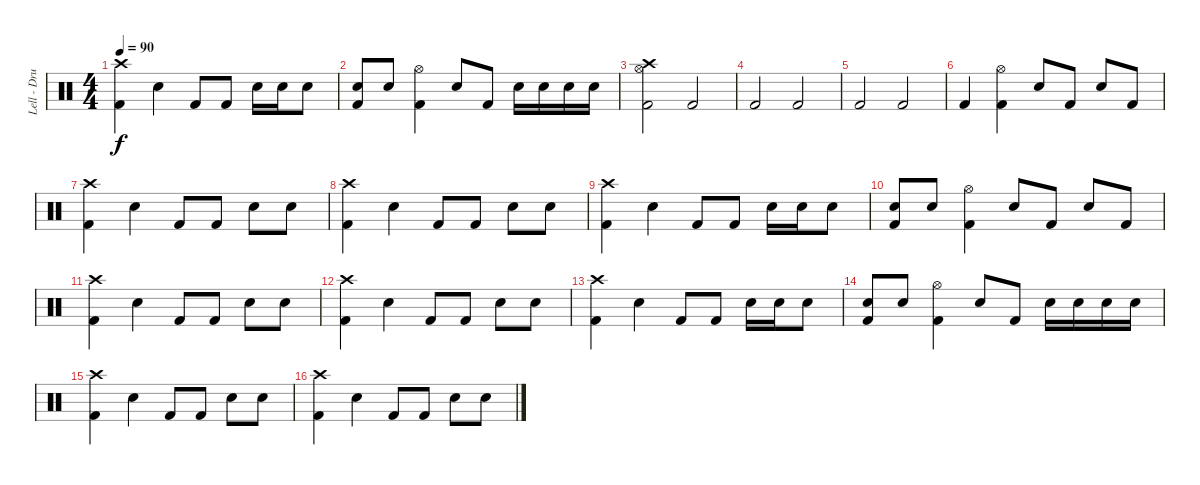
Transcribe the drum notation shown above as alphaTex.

\track ("Lell - Drums" "Lell - Dru") {instrument percussion}
\staff {score}
\articulation defaults
\ts (4 4)
\tempo 90
\clef neutral
\ks c
("Crash high (hit)" "Kick (hit) 2").4{dy f} "Snare (hit) 2".4 "Kick (hit) 2".8 "Kick (hit) 2".8 "Snare (hit) 2".16 "Snare (hit) 2".16 "Snare (hit) 2".8 |
("Snare (hit) 2" "Kick (hit) 2").8 "Snare (hit) 2".8 ("Hi-Hat (open)" "Kick (hit) 2").4 "Snare (hit) 2".8 "Kick (hit) 2".8 "Snare (hit) 2".16 "Snare (hit) 2".16 "Snare (hit) 2".16 "Snare (hit) 2".16 |
("Crash high (hit)" "Hi-Hat (open)" "Kick (hit) 2").2 "Kick (hit) 2".2 |
"Kick (hit) 2".2 "Kick (hit) 2".2 |
"Kick (hit) 2".2 "Kick (hit) 2".2 |
"Kick (hit) 2".4 ("Hi-Hat (open)" "Kick (hit) 2").4 "Snare (hit) 2".8 "Kick (hit) 2".8 "Snare (hit) 2".8 "Kick (hit) 2".8 |
("Crash high (hit)" "Kick (hit) 2").4 "Snare (hit) 2".4 "Kick (hit) 2".8 "Kick (hit) 2".8 "Snare (hit) 2".8 "Snare (hit) 2".8 |
("Crash high (hit)" "Kick (hit) 2").4 "Snare (hit) 2".4 "Kick (hit) 2".8 "Kick (hit) 2".8 "Snare (hit) 2".8 "Snare (hit) 2".8 |
("Crash high (hit)" "Kick (hit) 2").4 "Snare (hit) 2".4 "Kick (hit) 2".8 "Kick (hit) 2".8 "Snare (hit) 2".16 "Snare (hit) 2".16 "Snare (hit) 2".8 |
("Snare (hit) 2" "Kick (hit) 2").8 "Snare (hit) 2".8 ("Hi-Hat (open)" "Kick (hit) 2").4 "Snare (hit) 2".8 "Kick (hit) 2".8 "Snare (hit) 2".8 "Kick (hit) 2".8 |
("Crash high (hit)" "Kick (hit) 2").4 "Snare (hit) 2".4 "Kick (hit) 2".8 "Kick (hit) 2".8 "Snare (hit) 2".8 "Snare (hit) 2".8 |
("Crash high (hit)" "Kick (hit) 2").4 "Snare (hit) 2".4 "Kick (hit) 2".8 "Kick (hit) 2".8 "Snare (hit) 2".8 "Snare (hit) 2".8 |
("Crash high (hit)" "Kick (hit) 2").4 "Snare (hit) 2".4 "Kick (hit) 2".8 "Kick (hit) 2".8 "Snare (hit) 2".16 "Snare (hit) 2".16 "Snare (hit) 2".8 |
("Snare (hit) 2" "Kick (hit) 2").8 "Snare (hit) 2".8 ("Hi-Hat (open)" "Kick (hit) 2").4 "Snare (hit) 2".8 "Kick (hit) 2".8 "Snare (hit) 2".16 "Snare (hit) 2".16 "Snare (hit) 2".16 "Snare (hit) 2".16 |
("Crash high (hit)" "Kick (hit) 2").4 "Snare (hit) 2".4 "Kick (hit) 2".8 "Kick (hit) 2".8 "Snare (hit) 2".8 "Snare (hit) 2".8 |
("Crash high (hit)" "Kick (hit) 2").4 "Snare (hit) 2".4 "Kick (hit) 2".8 "Kick (hit) 2".8 "Snare (hit) 2".8 "Snare (hit) 2".8
